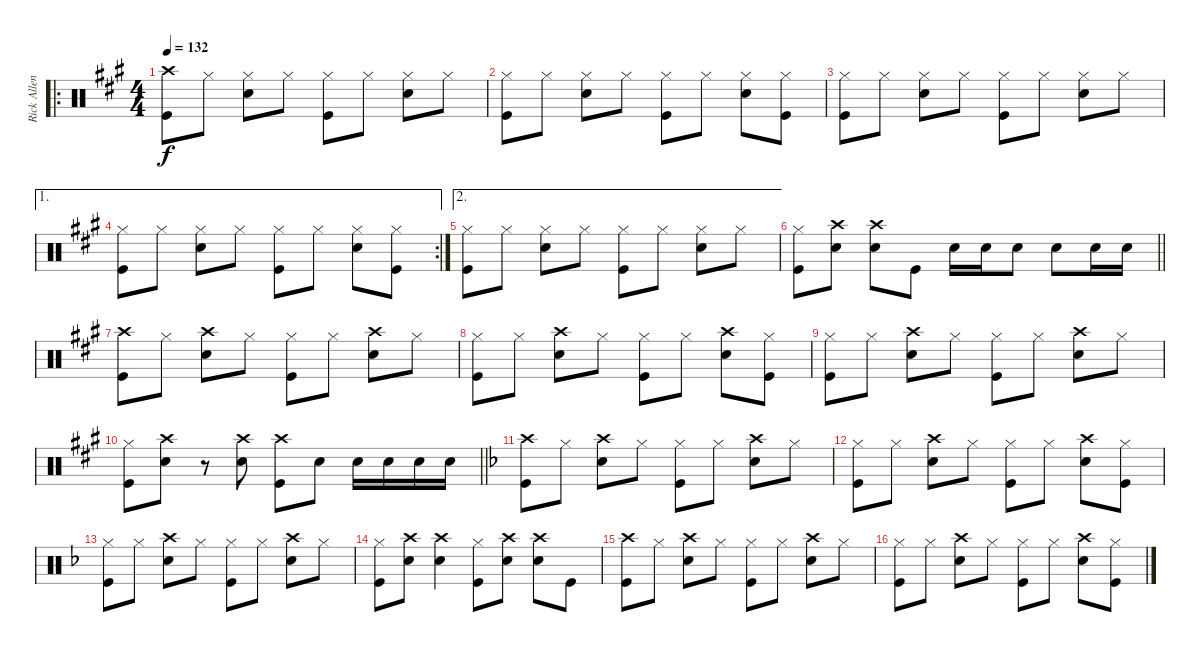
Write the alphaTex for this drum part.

\track ("Rick Allen" "Rick Allen") {instrument percussion}
\staff {score}
\articulation defaults
\ro
\ts (4 4)
\tempo 132
\clef neutral
\ks a
("Crash high (hit)" "Kick (hit)").8{dy f} "Hi-Hat (closed)".8 ("Hi-Hat (closed)" "Snare (hit) 2").8 "Hi-Hat (closed)".8 ("Hi-Hat (closed)" "Kick (hit)").8 "Hi-Hat (closed)".8 ("Hi-Hat (closed)" "Snare (hit) 2").8 "Hi-Hat (closed)".8 |
("Hi-Hat (closed)" "Kick (hit)").8 "Hi-Hat (closed)".8 ("Hi-Hat (closed)" "Snare (hit) 2").8 "Hi-Hat (closed)".8 ("Hi-Hat (closed)" "Kick (hit)").8 "Hi-Hat (closed)".8 ("Hi-Hat (closed)" "Snare (hit) 2").8 ("Hi-Hat (closed)" "Kick (hit)").8 |
("Hi-Hat (closed)" "Kick (hit)").8 "Hi-Hat (closed)".8 ("Hi-Hat (closed)" "Snare (hit) 2").8 "Hi-Hat (closed)".8 ("Hi-Hat (closed)" "Kick (hit)").8 "Hi-Hat (closed)".8 ("Hi-Hat (closed)" "Snare (hit) 2").8 "Hi-Hat (closed)".8 |
\ae 1
\rc 2
("Hi-Hat (closed)" "Kick (hit)").8 "Hi-Hat (closed)".8 ("Hi-Hat (closed)" "Snare (hit) 2").8 "Hi-Hat (closed)".8 ("Hi-Hat (closed)" "Kick (hit)").8 "Hi-Hat (closed)".8 ("Hi-Hat (closed)" "Snare (hit) 2").8 ("Hi-Hat (closed)" "Kick (hit)").8 |
\ae 2
("Hi-Hat (closed)" "Kick (hit)").8 "Hi-Hat (closed)".8 ("Hi-Hat (closed)" "Snare (hit) 2").8 "Hi-Hat (closed)".8 ("Hi-Hat (closed)" "Kick (hit)").8 "Hi-Hat (closed)".8 ("Hi-Hat (closed)" "Snare (hit) 2").8 "Hi-Hat (closed)".8 |
\barLineRight lightlight
("Hi-Hat (closed)" "Kick (hit)").8 ("Crash high (hit)" "Snare (hit) 2").8 ("Crash high (hit)" "Snare (hit) 2").8 "Kick (hit)".8 "Snare (hit) 2".16 "Snare (hit) 2".16 "Snare (hit) 2".8 "Snare (hit) 2".8 "Snare (hit) 2".16 "Snare (hit) 2".16 |
("Crash high (hit)" "Kick (hit)").8 "Hi-Hat (closed)".8 ("Crash high (hit)" "Snare (hit) 2").8 "Hi-Hat (closed)".8 ("Hi-Hat (closed)" "Kick (hit)").8 "Hi-Hat (closed)".8 ("Crash high (hit)" "Snare (hit) 2").8 "Hi-Hat (closed)".8 |
("Hi-Hat (closed)" "Kick (hit)").8 "Hi-Hat (closed)".8 ("Crash high (hit)" "Snare (hit) 2").8 "Hi-Hat (closed)".8 ("Hi-Hat (closed)" "Kick (hit)").8 "Hi-Hat (closed)".8 ("Crash high (hit)" "Snare (hit) 2").8 ("Hi-Hat (closed)" "Kick (hit)").8 |
("Hi-Hat (closed)" "Kick (hit)").8 "Hi-Hat (closed)".8 ("Crash high (hit)" "Snare (hit) 2").8 "Hi-Hat (closed)".8 ("Hi-Hat (closed)" "Kick (hit)").8 "Hi-Hat (closed)".8 ("Crash high (hit)" "Snare (hit) 2").8 "Hi-Hat (closed)".8 |
\barLineRight lightlight
("Hi-Hat (closed)" "Kick (hit)").8 ("Crash high (hit)" "Snare (hit) 2").8 r.8 ("Crash high (hit)" "Snare (hit) 2").8 ("Crash high (hit)" "Kick (hit)").8 "Snare (hit) 2".8 "Snare (hit) 2".16 "Snare (hit) 2".16 "Snare (hit) 2".16 "Snare (hit) 2".16 |
\ks f
("Crash high (hit)" "Kick (hit)").8 "Hi-Hat (closed)".8 ("Crash high (hit)" "Snare (hit) 2").8 "Hi-Hat (closed)".8 ("Hi-Hat (closed)" "Kick (hit)").8 "Hi-Hat (closed)".8 ("Crash high (hit)" "Snare (hit) 2").8 "Hi-Hat (closed)".8 |
("Hi-Hat (closed)" "Kick (hit)").8 "Hi-Hat (closed)".8 ("Crash high (hit)" "Snare (hit) 2").8 "Hi-Hat (closed)".8 ("Hi-Hat (closed)" "Kick (hit)").8 "Hi-Hat (closed)".8 ("Crash high (hit)" "Snare (hit) 2").8 ("Hi-Hat (closed)" "Kick (hit)").8 |
("Hi-Hat (closed)" "Kick (hit)").8 "Hi-Hat (closed)".8 ("Crash high (hit)" "Snare (hit) 2").8 "Hi-Hat (closed)".8 ("Hi-Hat (closed)" "Kick (hit)").8 "Hi-Hat (closed)".8 ("Crash high (hit)" "Snare (hit) 2").8 "Hi-Hat (closed)".8 |
("Hi-Hat (closed)" "Kick (hit)").8 ("Crash high (hit)" "Snare (hit) 2").8 ("Crash high (hit)" "Snare (hit) 2").4 ("Hi-Hat (closed)" "Kick (hit)").8 ("Crash high (hit)" "Snare (hit) 2").8 ("Crash high (hit)" "Snare (hit) 2").8 "Kick (hit)".8 |
("Crash high (hit)" "Kick (hit)").8 "Hi-Hat (closed)".8 ("Crash high (hit)" "Snare (hit) 2").8 "Hi-Hat (closed)".8 ("Hi-Hat (closed)" "Kick (hit)").8 "Hi-Hat (closed)".8 ("Crash high (hit)" "Snare (hit) 2").8 "Hi-Hat (closed)".8 |
("Hi-Hat (closed)" "Kick (hit)").8 "Hi-Hat (closed)".8 ("Crash high (hit)" "Snare (hit) 2").8 "Hi-Hat (closed)".8 ("Hi-Hat (closed)" "Kick (hit)").8 "Hi-Hat (closed)".8 ("Crash high (hit)" "Snare (hit) 2").8 ("Hi-Hat (closed)" "Kick (hit)").8
